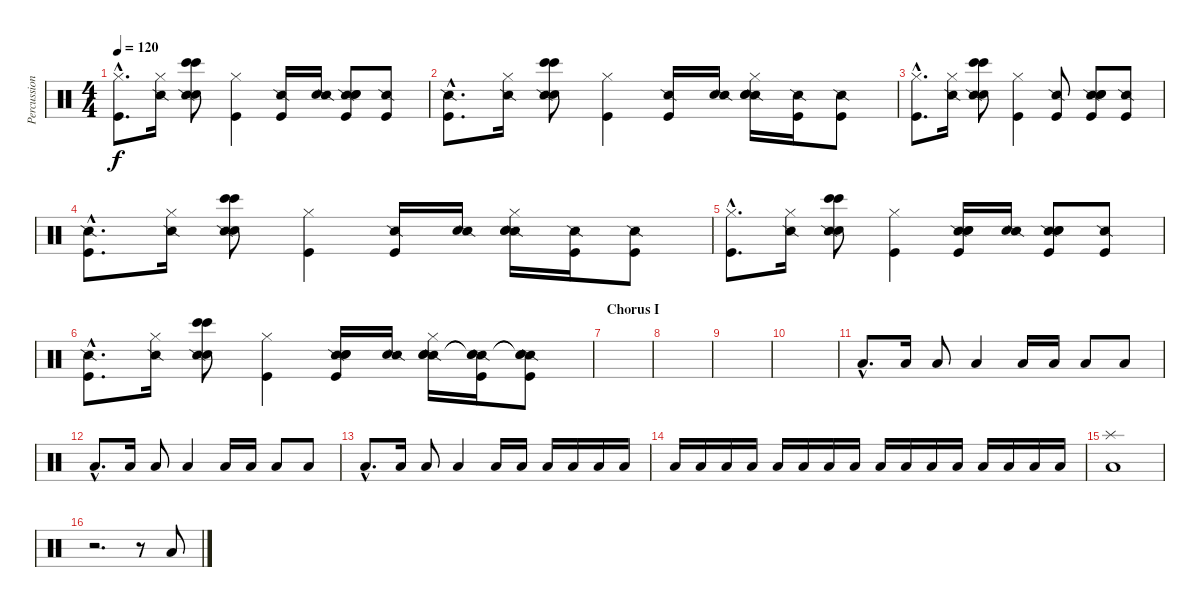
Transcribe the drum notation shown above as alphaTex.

\track ("Percussion" "Percussion") {instrument percussion}
\staff {score}
\articulation defaults
\ts (4 4)
\tempo 120
\clef neutral
\ks c
("Kick (hit)"{hac} "Hi-Hat (closed)"{hac}).8{d dy f} ("Hi-Hat (closed)" "Snare (side stick) 2").16 ("Snare (hit) 2" "Snare (side stick) 2" "Bongo High (hit)" "Bongo High (hit)").8 ("Kick (hit)" "Hi-Hat (closed)").4 ("Kick (hit)" "Snare (side stick) 2").16 ("Snare (hit) 2" "Snare (side stick) 2").16 ("Kick (hit)" "Snare (side stick) 2" "Electric Snare (hit)" "Electric Snare (hit)").8 ("Kick (hit)" "Snare (side stick) 2").8 |
("Kick (hit)"{hac} "Snare (side stick) 2"{hac}).8{d} ("Hi-Hat (closed)" "Snare (side stick) 2").16 ("Snare (hit) 2" "Snare (side stick) 2" "Bongo High (hit)" "Bongo High (hit)").8 ("Kick (hit)" "Hi-Hat (closed)").4 ("Kick (hit)" "Snare (side stick) 2").16 ("Snare (hit) 2" "Snare (side stick) 2").16 ("Hi-Hat (closed)" "Snare (side stick) 2" "Electric Snare (hit)" "Electric Snare (hit)").16 ("Kick (hit)" "Snare (side stick) 2").16 ("Kick (hit)" "Snare (side stick) 2").8 |
("Kick (hit)"{hac} "Hi-Hat (closed)"{hac}).8{d} ("Hi-Hat (closed)" "Snare (side stick) 2").16 ("Snare (hit) 2" "Snare (side stick) 2" "Bongo High (hit)" "Bongo High (hit)").8 ("Kick (hit)" "Hi-Hat (closed)").4 ("Kick (hit)" "Snare (side stick) 2").8 ("Kick (hit)" "Snare (side stick) 2" "Electric Snare (hit)" "Electric Snare (hit)").8 ("Kick (hit)" "Snare (side stick) 2").8 |
("Kick (hit)"{hac} "Snare (side stick) 2"{hac}).8{d} ("Hi-Hat (closed)" "Snare (side stick) 2").16 ("Snare (hit) 2" "Snare (side stick) 2" "Bongo High (hit)" "Bongo High (hit)").8 ("Kick (hit)" "Hi-Hat (closed)").4 ("Kick (hit)" "Snare (side stick) 2").16 ("Snare (hit) 2" "Snare (side stick) 2").16 ("Hi-Hat (closed)" "Snare (side stick) 2" "Electric Snare (hit)" "Electric Snare (hit)").16 ("Kick (hit)" "Snare (side stick) 2").16 ("Kick (hit)" "Snare (side stick) 2").8 |
("Kick (hit)"{hac} "Hi-Hat (closed)"{hac}).8{d} ("Hi-Hat (closed)" "Snare (side stick) 2").16 ("Snare (hit) 2" "Snare (side stick) 2" "Bongo High (hit)" "Bongo High (hit)").8 ("Kick (hit)" "Hi-Hat (closed)").4 ("Kick (hit)" "Snare (side stick) 2" "Electric Snare (hit)" "Electric Snare (hit)").16 ("Snare (hit) 2" "Snare (side stick) 2").16 ("Kick (hit)" "Snare (side stick) 2" "Electric Snare (hit)" "Electric Snare (hit)").8 ("Kick (hit)" "Snare (side stick) 2").8 |
("Kick (hit)"{hac} "Snare (side stick) 2"{hac}).8{d} ("Hi-Hat (closed)" "Snare (side stick) 2").16 ("Snare (hit) 2" "Snare (side stick) 2" "Bongo High (hit)" "Bongo High (hit)").8 ("Kick (hit)" "Hi-Hat (closed)").4 ("Kick (hit)" "Snare (side stick) 2" "Electric Snare (hit)" "Electric Snare (hit)").16 ("Snare (hit) 2" "Snare (side stick) 2").16 ("Hi-Hat (closed)" "Snare (side stick) 2" "Electric Snare (hit)" "Electric Snare (hit)").16 ("Kick (hit)" "Snare (side stick) 2" "Snare (hit)"{t} "Snare (hit)"{t}).16 ("Kick (hit)" "Snare (side stick) 2" "Snare (hit)"{t} "Snare (hit)"{t}).8 |
\section ("" "Chorus I")
|
|
|
|
"Low Floor Tom (hit)"{hac}.8{d balance 13} "Low Floor Tom (hit)".16 "Low Floor Tom (hit)".8 "Low Floor Tom (hit)".4 "Low Floor Tom (hit)".16 "Low Floor Tom (hit)".16 "Low Floor Tom (hit)".8 "Low Floor Tom (hit)".8 |
"Low Floor Tom (hit)"{hac}.8{d} "Low Floor Tom (hit)".16 "Low Floor Tom (hit)".8 "Low Floor Tom (hit)".4 "Low Floor Tom (hit)".16 "Low Floor Tom (hit)".16 "Low Floor Tom (hit)".8 "Low Floor Tom (hit)".8 |
"Low Floor Tom (hit)"{hac}.8{d} "Low Floor Tom (hit)".16 "Low Floor Tom (hit)".8 "Low Floor Tom (hit)".4 "Low Floor Tom (hit)".16 "Low Floor Tom (hit)".16 "Low Floor Tom (hit)".16 "Low Floor Tom (hit)".16 "Low Floor Tom (hit)".16 "Low Floor Tom (hit)".16 |
"Low Floor Tom (hit)".16 "Low Floor Tom (hit)".16 "Low Floor Tom (hit)".16 "Low Floor Tom (hit)".16 "Low Floor Tom (hit)".16 "Low Floor Tom (hit)".16 "Low Floor Tom (hit)".16 "Low Floor Tom (hit)".16 "Low Floor Tom (hit)".16 "Low Floor Tom (hit)".16 "Low Floor Tom (hit)".16 "Low Floor Tom (hit)".16 "Low Floor Tom (hit)".16 "Low Floor Tom (hit)".16 "Low Floor Tom (hit)".16 "Low Floor Tom (hit)".16 |
("Splash (hit)" "Low Floor Tom (hit)").1{balance 8} |
r.2{d} r.8 "Low Floor Tom (hit)".8
